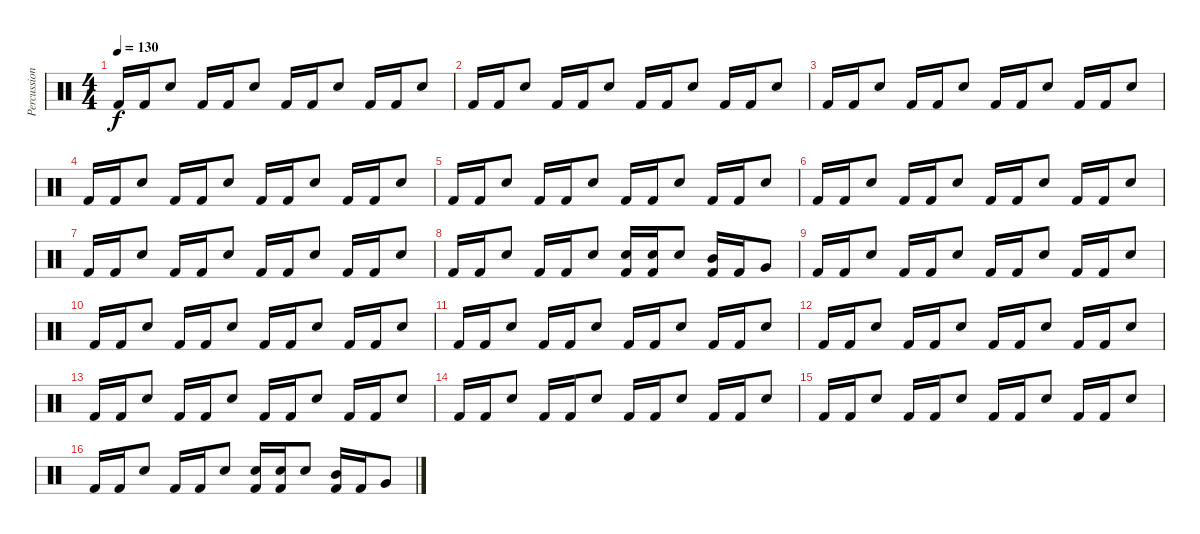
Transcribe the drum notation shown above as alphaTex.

\track ("Percussion" "Percussion") {instrument percussion}
\staff {score}
\articulation defaults
\ts (4 4)
\tempo 130
\clef neutral
\ks c "Kick (hit) 2".16{dy f} "Kick (hit) 2".16 "Snare (hit) 2".8 "Kick (hit) 2".16 "Kick (hit) 2".16 "Snare (hit) 2".8 "Kick (hit) 2".16 "Kick (hit) 2".16 "Snare (hit) 2".8 "Kick (hit) 2".16 "Kick (hit) 2".16 "Snare (hit) 2".8
|
"Kick (hit) 2".16 "Kick (hit) 2".16 "Snare (hit) 2".8 "Kick (hit) 2".16 "Kick (hit) 2".16 "Snare (hit) 2".8 "Kick (hit) 2".16 "Kick (hit) 2".16 "Snare (hit) 2".8 "Kick (hit) 2".16 "Kick (hit) 2".16 "Snare (hit) 2".8 |
"Kick (hit) 2".16 "Kick (hit) 2".16 "Snare (hit) 2".8 "Kick (hit) 2".16 "Kick (hit) 2".16 "Snare (hit) 2".8 "Kick (hit) 2".16 "Kick (hit) 2".16 "Snare (hit) 2".8 "Kick (hit) 2".16 "Kick (hit) 2".16 "Snare (hit) 2".8 |
"Kick (hit) 2".16 "Kick (hit) 2".16 "Snare (hit) 2".8 "Kick (hit) 2".16 "Kick (hit) 2".16 "Snare (hit) 2".8 "Kick (hit) 2".16 "Kick (hit) 2".16 "Snare (hit) 2".8 "Kick (hit) 2".16 "Kick (hit) 2".16 "Snare (hit) 2".8 |
"Kick (hit) 2".16 "Kick (hit) 2".16 "Snare (hit) 2".8 "Kick (hit) 2".16 "Kick (hit) 2".16 "Snare (hit) 2".8 "Kick (hit) 2".16 "Kick (hit) 2".16 "Snare (hit) 2".8 "Kick (hit) 2".16 "Kick (hit) 2".16 "Snare (hit) 2".8 |
"Kick (hit) 2".16 "Kick (hit) 2".16 "Snare (hit) 2".8 "Kick (hit) 2".16 "Kick (hit) 2".16 "Snare (hit) 2".8 "Kick (hit) 2".16 "Kick (hit) 2".16 "Snare (hit) 2".8 "Kick (hit) 2".16 "Kick (hit) 2".16 "Snare (hit) 2".8 |
"Kick (hit) 2".16 "Kick (hit) 2".16 "Snare (hit) 2".8 "Kick (hit) 2".16 "Kick (hit) 2".16 "Snare (hit) 2".8 "Kick (hit) 2".16 "Kick (hit) 2".16 "Snare (hit) 2".8 "Kick (hit) 2".16 "Kick (hit) 2".16 "Snare (hit) 2".8 |
"Kick (hit) 2".16 "Kick (hit) 2".16 "Snare (hit) 2".8 "Kick (hit) 2".16 "Kick (hit) 2".16 "Snare (hit) 2".8 ("Snare (hit) 2" "Kick (hit) 2").16 ("Snare (hit) 2" "Kick (hit) 2").16 "Snare (hit) 2".8 ("Mid Tom (hit)" "Kick (hit) 2").16 "Kick (hit) 2".16 "Very Low Tom (hit)".8 |
"Kick (hit) 2".16 "Kick (hit) 2".16 "Snare (hit) 2".8 "Kick (hit) 2".16 "Kick (hit) 2".16 "Snare (hit) 2".8 "Kick (hit) 2".16 "Kick (hit) 2".16 "Snare (hit) 2".8 "Kick (hit) 2".16 "Kick (hit) 2".16 "Snare (hit) 2".8 |
"Kick (hit) 2".16 "Kick (hit) 2".16 "Snare (hit) 2".8 "Kick (hit) 2".16 "Kick (hit) 2".16 "Snare (hit) 2".8 "Kick (hit) 2".16 "Kick (hit) 2".16 "Snare (hit) 2".8 "Kick (hit) 2".16 "Kick (hit) 2".16 "Snare (hit) 2".8 |
"Kick (hit) 2".16 "Kick (hit) 2".16 "Snare (hit) 2".8 "Kick (hit) 2".16 "Kick (hit) 2".16 "Snare (hit) 2".8 "Kick (hit) 2".16 "Kick (hit) 2".16 "Snare (hit) 2".8 "Kick (hit) 2".16 "Kick (hit) 2".16 "Snare (hit) 2".8 |
"Kick (hit) 2".16 "Kick (hit) 2".16 "Snare (hit) 2".8 "Kick (hit) 2".16 "Kick (hit) 2".16 "Snare (hit) 2".8 "Kick (hit) 2".16 "Kick (hit) 2".16 "Snare (hit) 2".8 "Kick (hit) 2".16 "Kick (hit) 2".16 "Snare (hit) 2".8 |
"Kick (hit) 2".16 "Kick (hit) 2".16 "Snare (hit) 2".8 "Kick (hit) 2".16 "Kick (hit) 2".16 "Snare (hit) 2".8 "Kick (hit) 2".16 "Kick (hit) 2".16 "Snare (hit) 2".8 "Kick (hit) 2".16 "Kick (hit) 2".16 "Snare (hit) 2".8 |
"Kick (hit) 2".16 "Kick (hit) 2".16 "Snare (hit) 2".8 "Kick (hit) 2".16 "Kick (hit) 2".16 "Snare (hit) 2".8 "Kick (hit) 2".16 "Kick (hit) 2".16 "Snare (hit) 2".8 "Kick (hit) 2".16 "Kick (hit) 2".16 "Snare (hit) 2".8 |
"Kick (hit) 2".16 "Kick (hit) 2".16 "Snare (hit) 2".8 "Kick (hit) 2".16 "Kick (hit) 2".16 "Snare (hit) 2".8 "Kick (hit) 2".16 "Kick (hit) 2".16 "Snare (hit) 2".8 "Kick (hit) 2".16 "Kick (hit) 2".16 "Snare (hit) 2".8 |
"Kick (hit) 2".16 "Kick (hit) 2".16 "Snare (hit) 2".8 "Kick (hit) 2".16 "Kick (hit) 2".16 "Snare (hit) 2".8 ("Snare (hit) 2" "Kick (hit) 2").16 ("Snare (hit) 2" "Kick (hit) 2").16 "Snare (hit) 2".8 ("Mid Tom (hit)" "Kick (hit) 2").16 "Kick (hit) 2".16 "Very Low Tom (hit)".8
